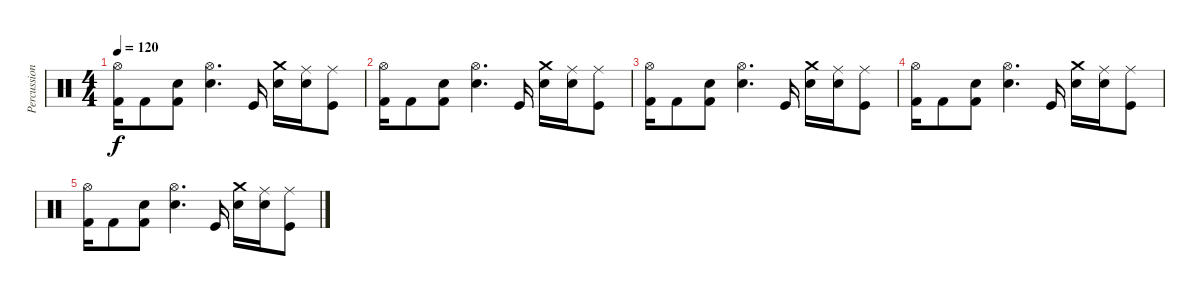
\track ("Percussion" "Percussion") {instrument percussion}
\staff {score}
\articulation defaults
\ts (4 4)
\tempo 120
\clef neutral
\ks c
("Hi-Hat (open)" "Kick (hit) 2").16{dy f} "Kick (hit) 2".8 ("Snare (hit) 2" "Kick (hit) 2").8 ("Hi-Hat (open)" "Snare (hit) 2").4{d} "Kick (hit)".16 ("Crash medium (hit)" "Snare (hit) 2").16 ("Ride (middle)" "Snare (hit) 2").16 ("Ride (middle)" "Kick (hit)").8 |
("Hi-Hat (open)" "Kick (hit) 2").16 "Kick (hit) 2".8 ("Snare (hit) 2" "Kick (hit) 2").8 ("Hi-Hat (open)" "Snare (hit) 2").4{d} "Kick (hit)".16 ("Crash medium (hit)" "Snare (hit) 2").16 ("Ride (middle)" "Snare (hit) 2").16 ("Ride (middle)" "Kick (hit)").8 |
("Hi-Hat (open)" "Kick (hit) 2").16 "Kick (hit) 2".8 ("Snare (hit) 2" "Kick (hit) 2").8 ("Hi-Hat (open)" "Snare (hit) 2").4{d} "Kick (hit)".16 ("Crash medium (hit)" "Snare (hit) 2").16 ("Ride (middle)" "Snare (hit) 2").16 ("Ride (middle)" "Kick (hit)").8 |
("Hi-Hat (open)" "Kick (hit) 2").16 "Kick (hit) 2".8 ("Snare (hit) 2" "Kick (hit) 2").8 ("Hi-Hat (open)" "Snare (hit) 2").4{d} "Kick (hit)".16 ("Crash medium (hit)" "Snare (hit) 2").16 ("Ride (middle)" "Snare (hit) 2").16 ("Ride (middle)" "Kick (hit)").8 |
("Hi-Hat (open)" "Kick (hit) 2").16 "Kick (hit) 2".8 ("Snare (hit) 2" "Kick (hit) 2").8 ("Hi-Hat (open)" "Snare (hit) 2").4{d} "Kick (hit)".16 ("Crash medium (hit)" "Snare (hit) 2").16 ("Ride (middle)" "Snare (hit) 2").16 ("Ride (middle)" "Kick (hit)").8
